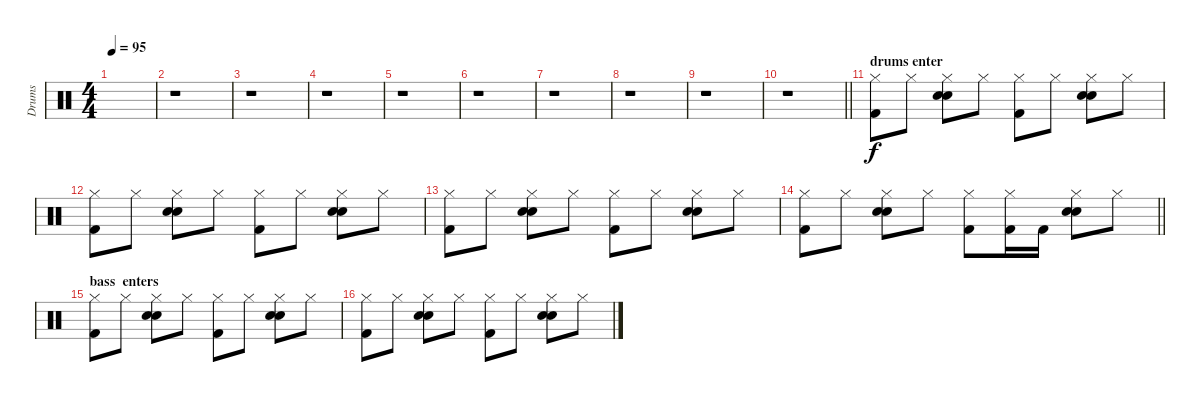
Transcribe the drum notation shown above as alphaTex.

\track ("Drums" "Drums") {instrument percussion}
\staff {score}
\articulation defaults
\ts (4 4)
\tempo 95
\clef neutral
\ks aminor
|
r.1 |
r.1 |
r.1 |
r.1 |
r.1 |
r.1 |
r.1 |
r.1 |
\barLineRight lightlight
r.1 |
\section ("" "drums enter")
("Hi-Hat (closed)" "Kick (hit) 2").8 "Hi-Hat (closed)".8 ("Hi-Hat (closed)" "Snare (hit) 2" "Electric Snare (hit)").8 "Hi-Hat (closed)".8 ("Hi-Hat (closed)" "Kick (hit) 2").8 "Hi-Hat (closed)".8 ("Hi-Hat (closed)" "Snare (hit) 2" "Electric Snare (hit)").8 "Hi-Hat (closed)".8 |
("Hi-Hat (closed)" "Kick (hit) 2").8 "Hi-Hat (closed)".8 ("Hi-Hat (closed)" "Snare (hit) 2" "Electric Snare (hit)").8 "Hi-Hat (closed)".8 ("Hi-Hat (closed)" "Kick (hit) 2").8 "Hi-Hat (closed)".8 ("Hi-Hat (closed)" "Snare (hit) 2" "Electric Snare (hit)").8 "Hi-Hat (closed)".8 |
("Hi-Hat (closed)" "Kick (hit) 2").8 "Hi-Hat (closed)".8 ("Hi-Hat (closed)" "Snare (hit) 2" "Electric Snare (hit)").8 "Hi-Hat (closed)".8 ("Hi-Hat (closed)" "Kick (hit) 2").8 "Hi-Hat (closed)".8 ("Hi-Hat (closed)" "Snare (hit) 2" "Electric Snare (hit)").8 "Hi-Hat (closed)".8 |
\barLineRight lightlight
("Hi-Hat (closed)" "Kick (hit) 2").8 "Hi-Hat (closed)".8 ("Hi-Hat (closed)" "Snare (hit) 2" "Electric Snare (hit)").8 "Hi-Hat (closed)".8 ("Hi-Hat (closed)" "Kick (hit) 2").8 ("Hi-Hat (closed)" "Kick (hit) 2").16 "Kick (hit) 2".16 ("Hi-Hat (closed)" "Snare (hit) 2" "Electric Snare (hit)").8 "Hi-Hat (closed)".8 |
\section ("" "bass  enters")
("Hi-Hat (closed)" "Kick (hit) 2").8 "Hi-Hat (closed)".8 ("Hi-Hat (closed)" "Snare (hit) 2" "Electric Snare (hit)").8 "Hi-Hat (closed)".8 ("Hi-Hat (closed)" "Kick (hit) 2").8 "Hi-Hat (closed)".8 ("Hi-Hat (closed)" "Snare (hit) 2" "Electric Snare (hit)").8 "Hi-Hat (closed)".8 |
("Hi-Hat (closed)" "Kick (hit) 2").8 "Hi-Hat (closed)".8 ("Hi-Hat (closed)" "Snare (hit) 2" "Electric Snare (hit)").8 "Hi-Hat (closed)".8 ("Hi-Hat (closed)" "Kick (hit) 2").8 "Hi-Hat (closed)".8 ("Hi-Hat (closed)" "Snare (hit) 2" "Electric Snare (hit)").8 "Hi-Hat (closed)".8
